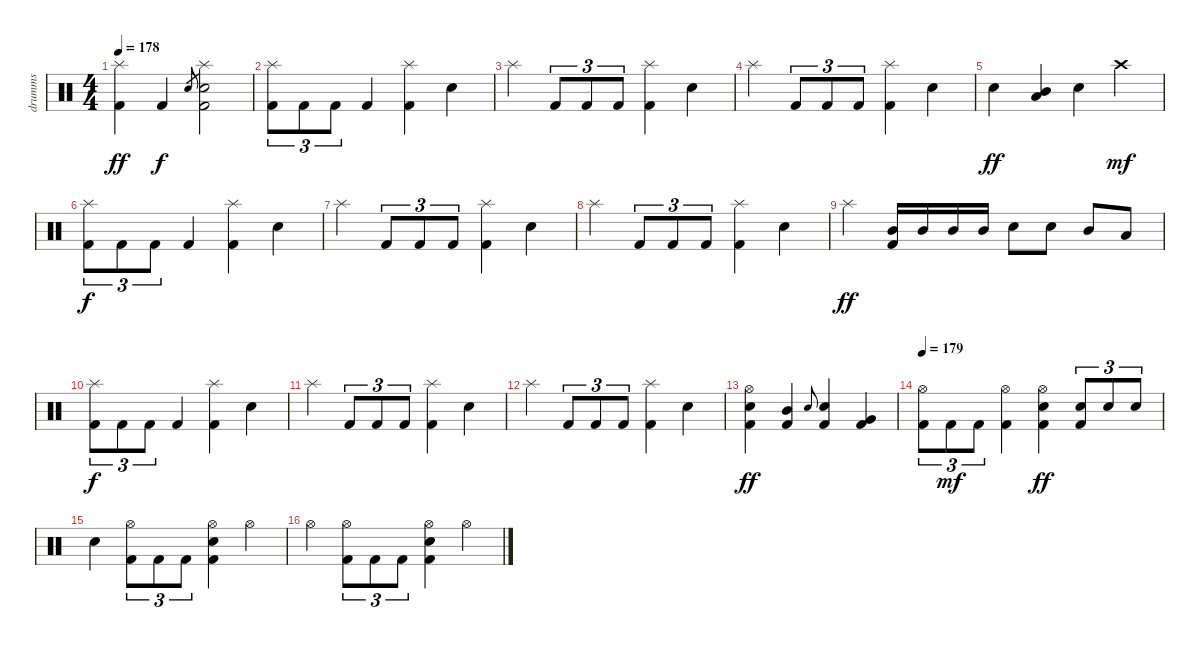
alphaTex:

\track ("drumms" "drumms") {instrument percussion}
\staff {score}
\articulation defaults
\ts (4 4)
\tempo 178
\clef neutral
\ks c
("Splash (hit)" "Kick (hit) 2").4{dy ff} "Kick (hit) 2".4{dy f} "Electric Snare (hit)"{sl x}.8{gr} ("Splash (hit)" "Electric Snare (hit)" "Kick (hit) 2").2 |
("Splash (hit)" "Kick (hit) 2").8{tu (3 2)} "Kick (hit) 2".8{tu (3 2)} "Kick (hit) 2".8{tu (3 2)} "Kick (hit) 2".4 ("Splash (hit)" "Kick (hit) 2").4 "Electric Snare (hit)".4 |
"Splash (hit)".4 "Kick (hit) 2".8{tu (3 2)} "Kick (hit) 2".8{tu (3 2)} "Kick (hit) 2".8{tu (3 2)} ("Splash (hit)" "Kick (hit) 2").4 "Electric Snare (hit)".4 |
"Splash (hit)".4 "Kick (hit) 2".8{tu (3 2)} "Kick (hit) 2".8{tu (3 2)} "Kick (hit) 2".8{tu (3 2)} ("Splash (hit)" "Kick (hit) 2").4 "Electric Snare (hit)".4 |
"Electric Snare (hit)".4{dy ff} ("Low Tom (hit)" "Mid Tom (hit)").4 "Electric Snare (hit)".4 "Crash high (hit)".4{dy mf} |
("Splash (hit)" "Kick (hit) 2").8{tu (3 2) dy f} "Kick (hit) 2".8{tu (3 2)} "Kick (hit) 2".8{tu (3 2)} "Kick (hit) 2".4 ("Splash (hit)" "Kick (hit) 2").4 "Electric Snare (hit)".4 |
"Splash (hit)".4 "Kick (hit) 2".8{tu (3 2)} "Kick (hit) 2".8{tu (3 2)} "Kick (hit) 2".8{tu (3 2)} ("Splash (hit)" "Kick (hit) 2").4 "Electric Snare (hit)".4 |
"Splash (hit)".4 "Kick (hit) 2".8{tu (3 2)} "Kick (hit) 2".8{tu (3 2)} "Kick (hit) 2".8{tu (3 2)} ("Splash (hit)" "Kick (hit) 2").4 "Electric Snare (hit)".4 |
"Splash (hit)".4{dy ff} ("Mid Tom (hit)" "Kick (hit) 2").16 "Mid Tom (hit)".16 "Mid Tom (hit)".16 "Mid Tom (hit)".16 "Electric Snare (hit)".8 "Electric Snare (hit)".8 "Mid Tom (hit)".8 "Low Tom (hit)".8 |
("Splash (hit)" "Kick (hit) 2").8{tu (3 2) dy f} "Kick (hit) 2".8{tu (3 2)} "Kick (hit) 2".8{tu (3 2)} "Kick (hit) 2".4 ("Splash (hit)" "Kick (hit) 2").4 "Electric Snare (hit)".4 |
"Splash (hit)".4 "Kick (hit) 2".8{tu (3 2)} "Kick (hit) 2".8{tu (3 2)} "Kick (hit) 2".8{tu (3 2)} ("Splash (hit)" "Kick (hit) 2").4 "Electric Snare (hit)".4 |
"Splash (hit)".4 "Kick (hit) 2".8{tu (3 2)} "Kick (hit) 2".8{tu (3 2)} "Kick (hit) 2".8{tu (3 2)} ("Splash (hit)" "Kick (hit) 2").4 "Electric Snare (hit)".4 |
("Hi-Hat (open)" "Electric Snare (hit)" "Kick (hit) 2").4{dy ff} ("Mid Tom (hit)" "Kick (hit) 2").4 "Electric Snare (hit)"{sl x}.8{gr onbeat} ("Electric Snare (hit)" "Kick (hit) 2").4 ("Very Low Tom (hit)" "Kick (hit) 2").4 |
\tempo 179
("Hi-Hat (open)" "Kick (hit) 2").8{tu (3 2)} "Kick (hit) 2".8{tu (3 2) dy mf} "Kick (hit) 2".8{tu (3 2)} ("Hi-Hat (open)" "Kick (hit) 2").4 ("Hi-Hat (open)" "Electric Snare (hit)" "Kick (hit) 2").4{dy ff} ("Electric Snare (hit)" "Kick (hit) 2").8{tu (3 2)} "Electric Snare (hit)".8{tu (3 2)} "Electric Snare (hit)".8{tu (3 2)} |
"Electric Snare (hit)".4 ("Hi-Hat (open)" "Kick (hit) 2").8{tu (3 2)} "Kick (hit) 2".8{tu (3 2)} "Kick (hit) 2".8{tu (3 2)} ("Hi-Hat (open)" "Electric Snare (hit)" "Kick (hit) 2").4 "Hi-Hat (open)".4 |
"Hi-Hat (open)".4 ("Hi-Hat (open)" "Kick (hit) 2").8{tu (3 2)} "Kick (hit) 2".8{tu (3 2)} "Kick (hit) 2".8{tu (3 2)} ("Hi-Hat (open)" "Electric Snare (hit)" "Kick (hit) 2").4 "Hi-Hat (open)".4
